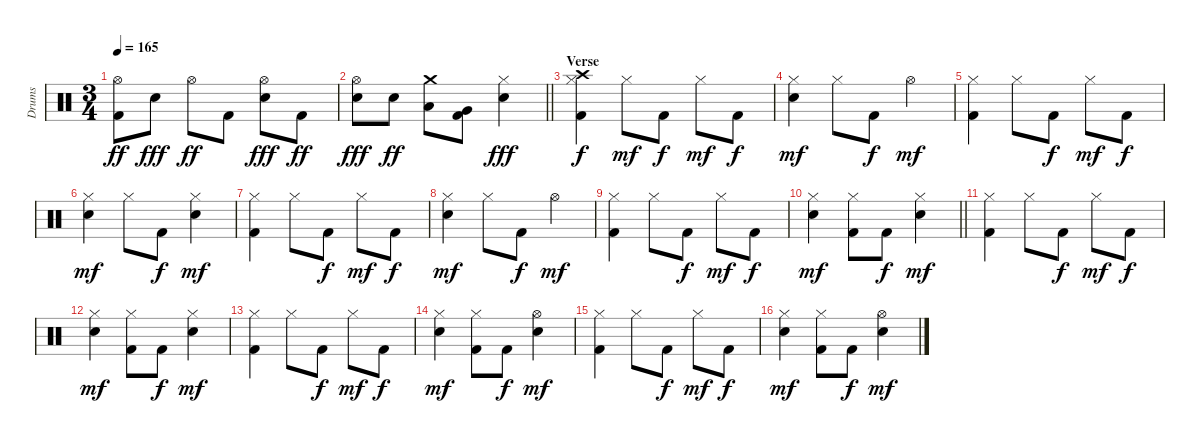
\track ("Drums" "Drums") {instrument percussion}
\staff {score}
\articulation defaults
\ts (3 4)
\tempo 165
\clef neutral
\ks c
("Hi-Hat (open)" "Kick (hit) 2").8{dy ff} "Snare (hit) 2".8{dy fff} "Hi-Hat (open)".8{dy ff} "Kick (hit) 2".8 ("Hi-Hat (open)" "Snare (hit) 2").8{dy fff} "Kick (hit) 2".8{dy ff} |
\barLineRight lightlight
("Hi-Hat (open)" "Snare (hit) 2").8{dy fff} "Snare (hit) 2".8{dy ff} ("Crash medium (hit)" "Low Tom (hit)").8 ("Very Low Tom (hit)" "Kick (hit) 2").8 ("Hi-Hat (closed)" "Snare (hit) 2").4{dy fff} |
\section ("" "Verse")
("Crash high (hit)" "Hi-Hat (closed)" "Kick (hit) 2").4{dy f} "Hi-Hat (closed)".8{dy mf} "Kick (hit) 2".8{dy f} "Hi-Hat (closed)".8{dy mf} "Kick (hit) 2".8{dy f} |
("Hi-Hat (closed)" "Snare (hit) 2").4{dy mf} "Hi-Hat (closed)".8 "Kick (hit) 2".8{dy f} "Hi-Hat (open)".4{dy mf} |
("Hi-Hat (closed)" "Kick (hit) 2").4 "Hi-Hat (closed)".8 "Kick (hit) 2".8{dy f} "Hi-Hat (closed)".8{dy mf} "Kick (hit) 2".8{dy f} |
("Hi-Hat (closed)" "Snare (hit) 2").4{dy mf} "Hi-Hat (closed)".8 "Kick (hit) 2".8{dy f} ("Hi-Hat (closed)" "Snare (hit) 2").4{dy mf} |
("Hi-Hat (closed)" "Kick (hit) 2").4 "Hi-Hat (closed)".8 "Kick (hit) 2".8{dy f} "Hi-Hat (closed)".8{dy mf} "Kick (hit) 2".8{dy f} |
("Hi-Hat (closed)" "Snare (hit) 2").4{dy mf} "Hi-Hat (closed)".8 "Kick (hit) 2".8{dy f} "Hi-Hat (open)".4{dy mf} |
("Hi-Hat (closed)" "Kick (hit) 2").4 "Hi-Hat (closed)".8 "Kick (hit) 2".8{dy f} "Hi-Hat (closed)".8{dy mf} "Kick (hit) 2".8{dy f} |
\barLineRight lightlight
("Hi-Hat (closed)" "Snare (hit) 2").4{dy mf} ("Hi-Hat (closed)" "Kick (hit) 2").8 "Kick (hit) 2".8{dy f} ("Hi-Hat (closed)" "Snare (hit) 2").4{dy mf} |
("Hi-Hat (closed)" "Kick (hit) 2").4 "Hi-Hat (closed)".8 "Kick (hit) 2".8{dy f} "Hi-Hat (closed)".8{dy mf} "Kick (hit) 2".8{dy f} |
("Hi-Hat (closed)" "Snare (hit) 2").4{dy mf} ("Hi-Hat (closed)" "Kick (hit) 2").8 "Kick (hit) 2".8{dy f} ("Hi-Hat (closed)" "Snare (hit) 2").4{dy mf} |
("Hi-Hat (closed)" "Kick (hit) 2").4 "Hi-Hat (closed)".8 "Kick (hit) 2".8{dy f} "Hi-Hat (closed)".8{dy mf} "Kick (hit) 2".8{dy f} |
("Hi-Hat (closed)" "Snare (hit) 2").4{dy mf} ("Hi-Hat (closed)" "Kick (hit) 2").8 "Kick (hit) 2".8{dy f} ("Hi-Hat (open)" "Snare (hit) 2").4{dy mf} |
("Hi-Hat (closed)" "Kick (hit) 2").4 "Hi-Hat (closed)".8 "Kick (hit) 2".8{dy f} "Hi-Hat (closed)".8{dy mf} "Kick (hit) 2".8{dy f} |
("Hi-Hat (closed)" "Snare (hit) 2").4{dy mf} ("Hi-Hat (closed)" "Kick (hit) 2").8 "Kick (hit) 2".8{dy f} ("Hi-Hat (open)" "Snare (hit) 2").4{dy mf}
